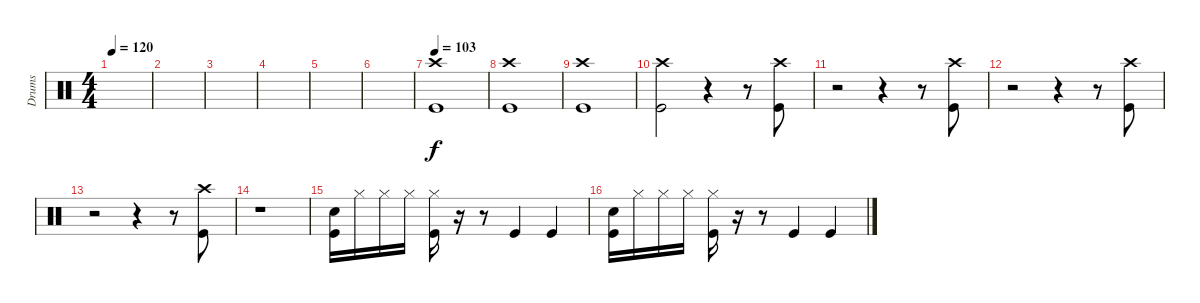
\track ("Drums" "Drums") {instrument percussion}
\staff {score}
\articulation defaults
\ts (4 4)
\tempo 120
\clef neutral
\ks c
|
|
|
|
|
|
\tempo 103
("Kick (hit)" "Crash high (hit)").1 |
("Kick (hit)" "Crash high (hit)").1 |
("Kick (hit)" "Crash high (hit)").1 |
("Kick (hit)" "Crash high (hit)").2 r.4 r.8 ("Kick (hit)" "Crash high (hit)").8 |
r.2 r.4 r.8 ("Kick (hit)" "Crash high (hit)").8 |
r.2 r.4 r.8 ("Kick (hit)" "Crash high (hit)").8 |
r.2 r.4 r.8 ("Kick (hit)" "Crash high (hit)").8 |
r.1 |
("Snare (hit) 2" "Kick (hit)").16 "Hi-Hat (closed)".16 "Hi-Hat (closed)".16 "Hi-Hat (closed)".16 ("Hi-Hat (closed)" "Kick (hit)").16 r.16 r.8 "Kick (hit)".4 "Kick (hit)".4 |
("Snare (hit) 2" "Kick (hit)").16 "Hi-Hat (closed)".16 "Hi-Hat (closed)".16 "Hi-Hat (closed)".16 ("Hi-Hat (closed)" "Kick (hit)").16 r.16 r.8 "Kick (hit)".4 "Kick (hit)".4
